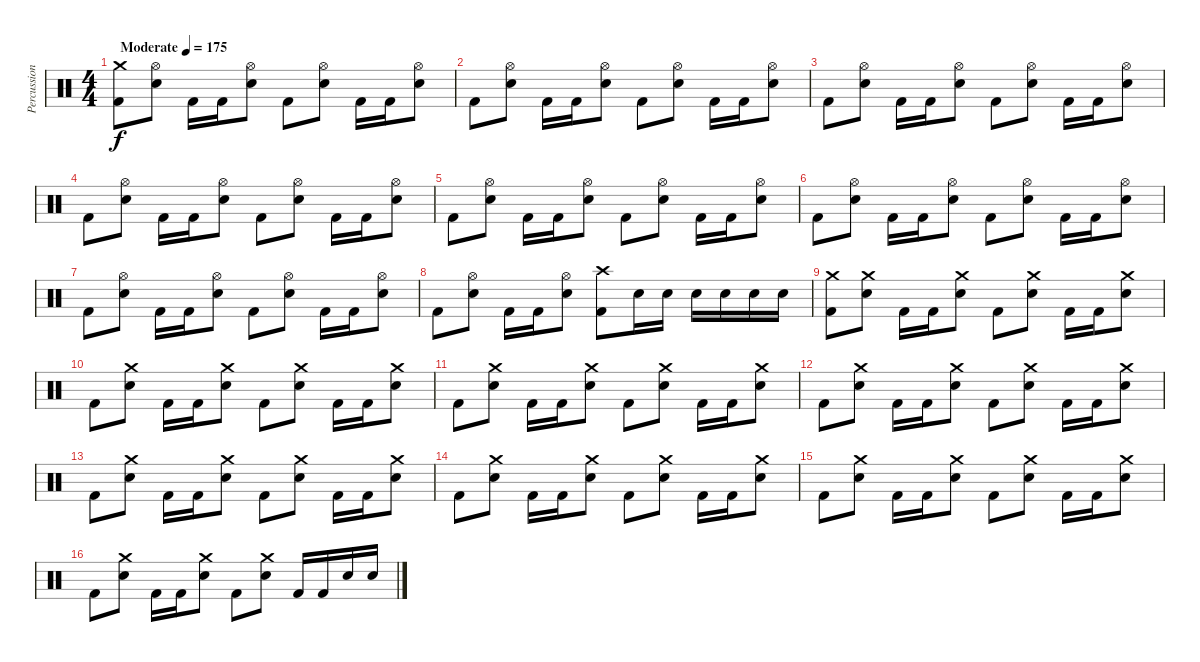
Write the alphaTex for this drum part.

\track ("Percussion" "Percussion") {instrument percussion}
\staff {score}
\articulation defaults
\ts (4 4)
\tempo (175 "Moderate")
\clef neutral
\ks c
("Crash medium (hit)" "Kick (hit) 2").8{dy f} ("Hi-Hat (open)" "Snare (hit) 2").8 "Kick (hit) 2".16 "Kick (hit) 2".16 ("Hi-Hat (open)" "Snare (hit) 2").8 "Kick (hit) 2".8 ("Hi-Hat (open)" "Snare (hit) 2").8 "Kick (hit) 2".16 "Kick (hit) 2".16 ("Hi-Hat (open)" "Snare (hit) 2").8 |
"Kick (hit) 2".8 ("Hi-Hat (open)" "Snare (hit) 2").8 "Kick (hit) 2".16 "Kick (hit) 2".16 ("Hi-Hat (open)" "Snare (hit) 2").8 "Kick (hit) 2".8 ("Hi-Hat (open)" "Snare (hit) 2").8 "Kick (hit) 2".16 "Kick (hit) 2".16 ("Hi-Hat (open)" "Snare (hit) 2").8 |
"Kick (hit) 2".8 ("Hi-Hat (open)" "Snare (hit) 2").8 "Kick (hit) 2".16 "Kick (hit) 2".16 ("Hi-Hat (open)" "Snare (hit) 2").8 "Kick (hit) 2".8 ("Hi-Hat (open)" "Snare (hit) 2").8 "Kick (hit) 2".16 "Kick (hit) 2".16 ("Hi-Hat (open)" "Snare (hit) 2").8 |
"Kick (hit) 2".8 ("Hi-Hat (open)" "Snare (hit) 2").8 "Kick (hit) 2".16 "Kick (hit) 2".16 ("Hi-Hat (open)" "Snare (hit) 2").8 "Kick (hit) 2".8 ("Hi-Hat (open)" "Snare (hit) 2").8 "Kick (hit) 2".16 "Kick (hit) 2".16 ("Hi-Hat (open)" "Snare (hit) 2").8 |
"Kick (hit) 2".8 ("Hi-Hat (open)" "Snare (hit) 2").8 "Kick (hit) 2".16 "Kick (hit) 2".16 ("Hi-Hat (open)" "Snare (hit) 2").8 "Kick (hit) 2".8 ("Hi-Hat (open)" "Snare (hit) 2").8 "Kick (hit) 2".16 "Kick (hit) 2".16 ("Hi-Hat (open)" "Snare (hit) 2").8 |
"Kick (hit) 2".8 ("Hi-Hat (open)" "Snare (hit) 2").8 "Kick (hit) 2".16 "Kick (hit) 2".16 ("Hi-Hat (open)" "Snare (hit) 2").8 "Kick (hit) 2".8 ("Hi-Hat (open)" "Snare (hit) 2").8 "Kick (hit) 2".16 "Kick (hit) 2".16 ("Hi-Hat (open)" "Snare (hit) 2").8 |
"Kick (hit) 2".8 ("Hi-Hat (open)" "Snare (hit) 2").8 "Kick (hit) 2".16 "Kick (hit) 2".16 ("Hi-Hat (open)" "Snare (hit) 2").8 "Kick (hit) 2".8 ("Hi-Hat (open)" "Snare (hit) 2").8 "Kick (hit) 2".16 "Kick (hit) 2".16 ("Hi-Hat (open)" "Snare (hit) 2").8 |
"Kick (hit) 2".8 ("Hi-Hat (open)" "Snare (hit) 2").8 "Kick (hit) 2".16 "Kick (hit) 2".16 ("Hi-Hat (open)" "Snare (hit) 2").8 ("Crash high (hit)" "Kick (hit) 2").8 "Snare (hit) 2".16 "Snare (hit) 2".16 "Snare (hit) 2".16 "Snare (hit) 2".16 "Snare (hit) 2".16 "Snare (hit) 2".16 |
("Crash medium (hit)" "Kick (hit) 2").8 ("Crash medium (hit)" "Snare (hit) 2").8 "Kick (hit) 2".16 "Kick (hit) 2".16 ("Crash medium (hit)" "Snare (hit) 2").8 "Kick (hit) 2".8 ("Crash medium (hit)" "Snare (hit) 2").8 "Kick (hit) 2".16 "Kick (hit) 2".16 ("Crash medium (hit)" "Snare (hit) 2").8 |
"Kick (hit) 2".8 ("Crash medium (hit)" "Snare (hit) 2").8 "Kick (hit) 2".16 "Kick (hit) 2".16 ("Crash medium (hit)" "Snare (hit) 2").8 "Kick (hit) 2".8 ("Crash medium (hit)" "Snare (hit) 2").8 "Kick (hit) 2".16 "Kick (hit) 2".16 ("Crash medium (hit)" "Snare (hit) 2").8 |
"Kick (hit) 2".8 ("Crash medium (hit)" "Snare (hit) 2").8 "Kick (hit) 2".16 "Kick (hit) 2".16 ("Crash medium (hit)" "Snare (hit) 2").8 "Kick (hit) 2".8 ("Crash medium (hit)" "Snare (hit) 2").8 "Kick (hit) 2".16 "Kick (hit) 2".16 ("Crash medium (hit)" "Snare (hit) 2").8 |
"Kick (hit) 2".8 ("Crash medium (hit)" "Snare (hit) 2").8 "Kick (hit) 2".16 "Kick (hit) 2".16 ("Crash medium (hit)" "Snare (hit) 2").8 "Kick (hit) 2".8 ("Crash medium (hit)" "Snare (hit) 2").8 "Kick (hit) 2".16 "Kick (hit) 2".16 ("Crash medium (hit)" "Snare (hit) 2").8 |
"Kick (hit) 2".8 ("Crash medium (hit)" "Snare (hit) 2").8 "Kick (hit) 2".16 "Kick (hit) 2".16 ("Crash medium (hit)" "Snare (hit) 2").8 "Kick (hit) 2".8 ("Crash medium (hit)" "Snare (hit) 2").8 "Kick (hit) 2".16 "Kick (hit) 2".16 ("Crash medium (hit)" "Snare (hit) 2").8 |
"Kick (hit) 2".8 ("Crash medium (hit)" "Snare (hit) 2").8 "Kick (hit) 2".16 "Kick (hit) 2".16 ("Crash medium (hit)" "Snare (hit) 2").8 "Kick (hit) 2".8 ("Crash medium (hit)" "Snare (hit) 2").8 "Kick (hit) 2".16 "Kick (hit) 2".16 ("Crash medium (hit)" "Snare (hit) 2").8 |
"Kick (hit) 2".8 ("Crash medium (hit)" "Snare (hit) 2").8 "Kick (hit) 2".16 "Kick (hit) 2".16 ("Crash medium (hit)" "Snare (hit) 2").8 "Kick (hit) 2".8 ("Crash medium (hit)" "Snare (hit) 2").8 "Kick (hit) 2".16 "Kick (hit) 2".16 ("Crash medium (hit)" "Snare (hit) 2").8 |
"Kick (hit) 2".8 ("Crash medium (hit)" "Snare (hit) 2").8 "Kick (hit) 2".16 "Kick (hit) 2".16 ("Crash medium (hit)" "Snare (hit) 2").8 "Kick (hit) 2".8 ("Crash medium (hit)" "Snare (hit) 2").8 "Kick (hit) 2".16 "Kick (hit) 2".16 "Snare (hit) 2".16 "Snare (hit) 2".16
